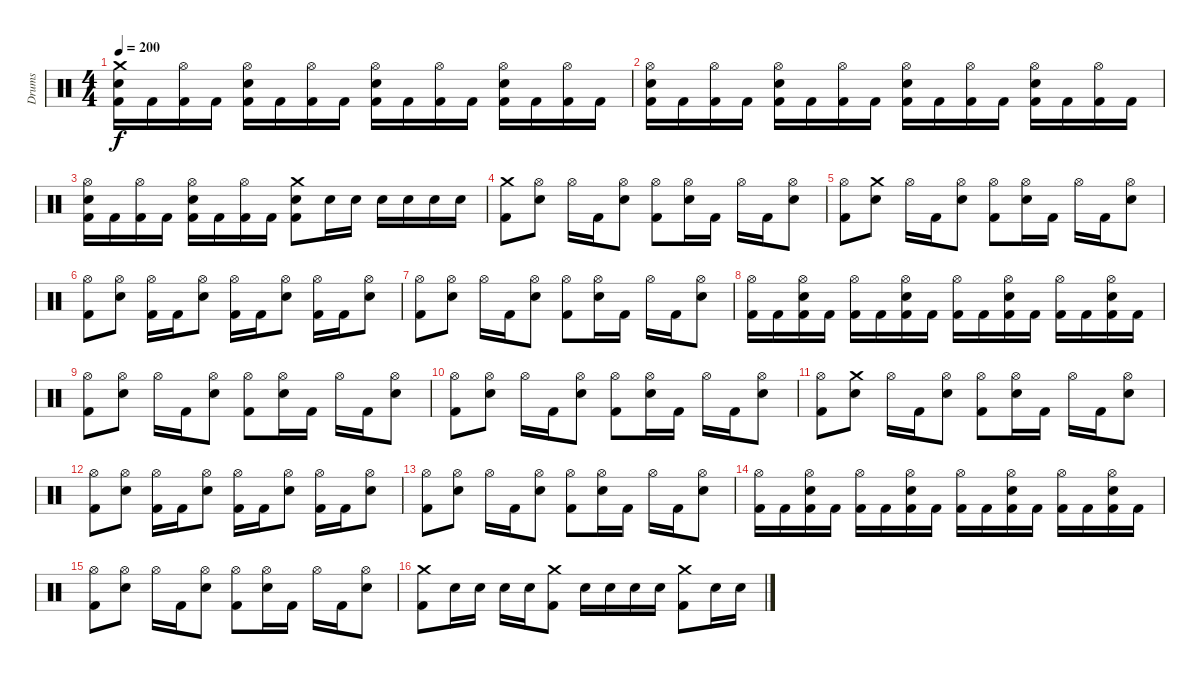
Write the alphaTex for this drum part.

\track ("Drums" "Drums") {instrument percussion}
\staff {score}
\articulation defaults
\ts (4 4)
\tempo 200
\clef neutral
\ks c
("Crash medium (hit)" "Snare (hit) 2" "Kick (hit) 2").16{dy f} "Kick (hit) 2".16 ("Hi-Hat (open)" "Kick (hit) 2").16 "Kick (hit) 2".16 ("Hi-Hat (open)" "Snare (hit) 2" "Kick (hit) 2").16 "Kick (hit) 2".16 ("Hi-Hat (open)" "Kick (hit) 2").16 "Kick (hit) 2".16 ("Hi-Hat (open)" "Snare (hit) 2" "Kick (hit) 2").16 "Kick (hit) 2".16 ("Hi-Hat (open)" "Kick (hit) 2").16 "Kick (hit) 2".16 ("Hi-Hat (open)" "Snare (hit) 2" "Kick (hit) 2").16 "Kick (hit) 2".16 ("Hi-Hat (open)" "Kick (hit) 2").16 "Kick (hit) 2".16 |
("Hi-Hat (open)" "Snare (hit) 2" "Kick (hit) 2").16 "Kick (hit) 2".16 ("Hi-Hat (open)" "Kick (hit) 2").16 "Kick (hit) 2".16 ("Hi-Hat (open)" "Snare (hit) 2" "Kick (hit) 2").16 "Kick (hit) 2".16 ("Hi-Hat (open)" "Kick (hit) 2").16 "Kick (hit) 2".16 ("Hi-Hat (open)" "Snare (hit) 2" "Kick (hit) 2").16 "Kick (hit) 2".16 ("Hi-Hat (open)" "Kick (hit) 2").16 "Kick (hit) 2".16 ("Hi-Hat (open)" "Snare (hit) 2" "Kick (hit) 2").16 "Kick (hit) 2".16 ("Hi-Hat (open)" "Kick (hit) 2").16 "Kick (hit) 2".16 |
("Hi-Hat (open)" "Snare (hit) 2" "Kick (hit) 2").16 "Kick (hit) 2".16 ("Hi-Hat (open)" "Kick (hit) 2").16 "Kick (hit) 2".16 ("Hi-Hat (open)" "Snare (hit) 2" "Kick (hit) 2").16 "Kick (hit) 2".16 ("Hi-Hat (open)" "Kick (hit) 2").16 "Kick (hit) 2".16 ("Crash medium (hit)" "Snare (hit) 2" "Kick (hit) 2").8 "Snare (hit) 2".16 "Snare (hit) 2".16 "Snare (hit) 2".16 "Snare (hit) 2".16 "Snare (hit) 2".16 "Snare (hit) 2".16 |
("Crash medium (hit)" "Kick (hit) 2").8 ("Hi-Hat (open)" "Snare (hit) 2").8 "Hi-Hat (open)".16 "Kick (hit) 2".16 ("Hi-Hat (open)" "Snare (hit) 2").8 ("Hi-Hat (open)" "Kick (hit) 2").8 ("Hi-Hat (open)" "Snare (hit) 2").16 "Kick (hit) 2".16 "Hi-Hat (open)".16 "Kick (hit) 2".16 ("Hi-Hat (open)" "Snare (hit) 2").8 |
("Hi-Hat (open)" "Kick (hit) 2").8 ("Crash medium (hit)" "Snare (hit) 2").8 "Hi-Hat (open)".16 "Kick (hit) 2".16 ("Hi-Hat (open)" "Snare (hit) 2").8 ("Hi-Hat (open)" "Kick (hit) 2").8 ("Hi-Hat (open)" "Snare (hit) 2").16 "Kick (hit) 2".16 "Hi-Hat (open)".16 "Kick (hit) 2".16 ("Hi-Hat (open)" "Snare (hit) 2").8 |
("Hi-Hat (open)" "Kick (hit) 2").8 ("Hi-Hat (open)" "Snare (hit) 2").8 ("Hi-Hat (open)" "Kick (hit) 2").16 "Kick (hit) 2".16 ("Hi-Hat (open)" "Snare (hit) 2").8 ("Hi-Hat (open)" "Kick (hit) 2").16 "Kick (hit) 2".16 ("Hi-Hat (open)" "Snare (hit) 2").8 ("Hi-Hat (open)" "Kick (hit) 2").16 "Kick (hit) 2".16 ("Hi-Hat (open)" "Snare (hit) 2").8 |
("Hi-Hat (open)" "Kick (hit) 2").8 ("Hi-Hat (open)" "Snare (hit) 2").8 "Hi-Hat (open)".16 "Kick (hit) 2".16 ("Hi-Hat (open)" "Snare (hit) 2").8 ("Hi-Hat (open)" "Kick (hit) 2").8 ("Hi-Hat (open)" "Snare (hit) 2").16 "Kick (hit) 2".16 "Hi-Hat (open)".16 "Kick (hit) 2".16 ("Hi-Hat (open)" "Snare (hit) 2").8 |
("Hi-Hat (open)" "Kick (hit) 2").16 "Kick (hit) 2".16 ("Hi-Hat (open)" "Snare (hit) 2" "Kick (hit) 2").16 "Kick (hit) 2".16 ("Hi-Hat (open)" "Kick (hit) 2").16 "Kick (hit) 2".16 ("Hi-Hat (open)" "Snare (hit) 2" "Kick (hit) 2").16 "Kick (hit) 2".16 ("Hi-Hat (open)" "Kick (hit) 2").16 "Kick (hit) 2".16 ("Hi-Hat (open)" "Snare (hit) 2" "Kick (hit) 2").16 "Kick (hit) 2".16 ("Hi-Hat (open)" "Kick (hit) 2").16 "Kick (hit) 2".16 ("Hi-Hat (open)" "Snare (hit) 2" "Kick (hit) 2").16 "Kick (hit) 2".16 |
("Hi-Hat (open)" "Kick (hit) 2").8 ("Hi-Hat (open)" "Snare (hit) 2").8 "Hi-Hat (open)".16 "Kick (hit) 2".16 ("Hi-Hat (open)" "Snare (hit) 2").8 ("Hi-Hat (open)" "Kick (hit) 2").8 ("Hi-Hat (open)" "Snare (hit) 2").16 "Kick (hit) 2".16 "Hi-Hat (open)".16 "Kick (hit) 2".16 ("Hi-Hat (open)" "Snare (hit) 2").8 |
("Hi-Hat (open)" "Kick (hit) 2").8 ("Hi-Hat (open)" "Snare (hit) 2").8 "Hi-Hat (open)".16 "Kick (hit) 2".16 ("Hi-Hat (open)" "Snare (hit) 2").8 ("Hi-Hat (open)" "Kick (hit) 2").8 ("Hi-Hat (open)" "Snare (hit) 2").16 "Kick (hit) 2".16 "Hi-Hat (open)".16 "Kick (hit) 2".16 ("Hi-Hat (open)" "Snare (hit) 2").8 |
("Hi-Hat (open)" "Kick (hit) 2").8 ("Crash medium (hit)" "Snare (hit) 2").8 "Hi-Hat (open)".16 "Kick (hit) 2".16 ("Hi-Hat (open)" "Snare (hit) 2").8 ("Hi-Hat (open)" "Kick (hit) 2").8 ("Hi-Hat (open)" "Snare (hit) 2").16 "Kick (hit) 2".16 "Hi-Hat (open)".16 "Kick (hit) 2".16 ("Hi-Hat (open)" "Snare (hit) 2").8 |
("Hi-Hat (open)" "Kick (hit) 2").8 ("Hi-Hat (open)" "Snare (hit) 2").8 ("Hi-Hat (open)" "Kick (hit) 2").16 "Kick (hit) 2".16 ("Hi-Hat (open)" "Snare (hit) 2").8 ("Hi-Hat (open)" "Kick (hit) 2").16 "Kick (hit) 2".16 ("Hi-Hat (open)" "Snare (hit) 2").8 ("Hi-Hat (open)" "Kick (hit) 2").16 "Kick (hit) 2".16 ("Hi-Hat (open)" "Snare (hit) 2").8 |
("Hi-Hat (open)" "Kick (hit) 2").8 ("Hi-Hat (open)" "Snare (hit) 2").8 "Hi-Hat (open)".16 "Kick (hit) 2".16 ("Hi-Hat (open)" "Snare (hit) 2").8 ("Hi-Hat (open)" "Kick (hit) 2").8 ("Hi-Hat (open)" "Snare (hit) 2").16 "Kick (hit) 2".16 "Hi-Hat (open)".16 "Kick (hit) 2".16 ("Hi-Hat (open)" "Snare (hit) 2").8 |
("Hi-Hat (open)" "Kick (hit) 2").16 "Kick (hit) 2".16 ("Hi-Hat (open)" "Snare (hit) 2" "Kick (hit) 2").16 "Kick (hit) 2".16 ("Hi-Hat (open)" "Kick (hit) 2").16 "Kick (hit) 2".16 ("Hi-Hat (open)" "Snare (hit) 2" "Kick (hit) 2").16 "Kick (hit) 2".16 ("Hi-Hat (open)" "Kick (hit) 2").16 "Kick (hit) 2".16 ("Hi-Hat (open)" "Snare (hit) 2" "Kick (hit) 2").16 "Kick (hit) 2".16 ("Hi-Hat (open)" "Kick (hit) 2").16 "Kick (hit) 2".16 ("Hi-Hat (open)" "Snare (hit) 2" "Kick (hit) 2").16 "Kick (hit) 2".16 |
("Hi-Hat (open)" "Kick (hit) 2").8 ("Hi-Hat (open)" "Snare (hit) 2").8 "Hi-Hat (open)".16 "Kick (hit) 2".16 ("Hi-Hat (open)" "Snare (hit) 2").8 ("Hi-Hat (open)" "Kick (hit) 2").8 ("Hi-Hat (open)" "Snare (hit) 2").16 "Kick (hit) 2".16 "Hi-Hat (open)".16 "Kick (hit) 2".16 ("Hi-Hat (open)" "Snare (hit) 2").8 |
("Crash medium (hit)" "Kick (hit) 2").8 "Snare (hit) 2".16 "Snare (hit) 2".16 "Snare (hit) 2".16 "Snare (hit) 2".16 ("Crash medium (hit)" "Kick (hit) 2").8 "Snare (hit) 2".16 "Snare (hit) 2".16 "Snare (hit) 2".16 "Snare (hit) 2".16 ("Crash medium (hit)" "Kick (hit) 2").8 "Snare (hit) 2".16 "Snare (hit) 2".16
